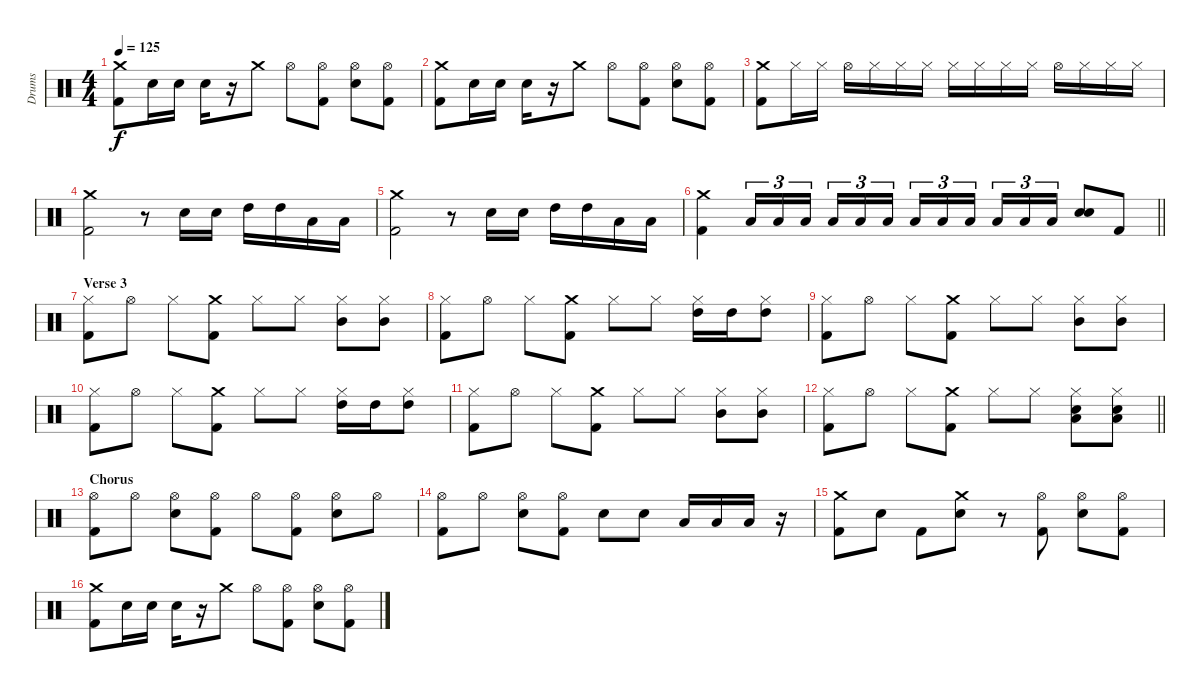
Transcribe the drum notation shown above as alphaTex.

\track ("Drums" "Drums") {instrument percussion}
\staff {score}
\articulation defaults
\ts (4 4)
\tempo 125
\clef neutral
\ks c
("Crash medium (hit)" "Kick (hit) 2").8{dy f} "Electric Snare (hit)".16 "Electric Snare (hit)".16 "Electric Snare (hit)".16 r.16 "Crash medium (hit)".8 "Hi-Hat (open)".8 ("Hi-Hat (open)" "Kick (hit) 2").8 ("Hi-Hat (open)" "Electric Snare (hit)").8 ("Hi-Hat (open)" "Kick (hit) 2").8 |
("Crash medium (hit)" "Kick (hit) 2").8 "Electric Snare (hit)".16 "Electric Snare (hit)".16 "Electric Snare (hit)".16 r.16 "Crash medium (hit)".8 "Hi-Hat (open)".8 ("Hi-Hat (open)" "Kick (hit) 2").8 ("Hi-Hat (open)" "Electric Snare (hit)").8 ("Hi-Hat (open)" "Kick (hit) 2").8 |
("Crash medium (hit)" "Kick (hit) 2").8 "Hi-Hat (closed)".16 "Hi-Hat (closed)".16 "Hi-Hat (open)".16 "Hi-Hat (closed)".16 "Hi-Hat (closed)".16 "Hi-Hat (closed)".16 "Hi-Hat (closed)".16 "Hi-Hat (closed)".16 "Hi-Hat (closed)".16 "Hi-Hat (closed)".16 "Hi-Hat (open)".16 "Hi-Hat (closed)".16 "Hi-Hat (closed)".16 "Hi-Hat (closed)".16 |
("Crash medium (hit)" "Kick (hit) 2").2 r.8 "Electric Snare (hit)".16 "Electric Snare (hit)".16 "High Tom (hit)".16 "High Tom (hit)".16 "Low Tom (hit)".16 "Low Tom (hit)".16 |
("Crash medium (hit)" "Kick (hit) 2").2 r.8 "Electric Snare (hit)".16 "Electric Snare (hit)".16 "High Tom (hit)".16 "High Tom (hit)".16 "Low Tom (hit)".16 "Low Tom (hit)".16 |
\barLineRight lightlight
("Crash medium (hit)" "Kick (hit) 2").4 "Low Tom (hit)".16{tu (3 2)} "Low Tom (hit)".16{tu (3 2)} "Low Tom (hit)".16{tu (3 2) beam splitsecondary} "Low Tom (hit)".16{tu (3 2)} "Low Tom (hit)".16{tu (3 2)} "Low Tom (hit)".16{tu (3 2)} "Low Tom (hit)".16{tu (3 2)} "Low Tom (hit)".16{tu (3 2)} "Low Tom (hit)".16{tu (3 2) beam splitsecondary} "Low Tom (hit)".16{tu (3 2)} "Low Tom (hit)".16{tu (3 2)} "Low Tom (hit)".16{tu (3 2)} ("Electric Snare (hit)" "Electric Snare (hit)").8 "Kick (hit) 2".8 |
\section ("" "Verse 3")
("Hi-Hat (closed)" "Kick (hit) 2").8 "Hi-Hat (open)".8 "Hi-Hat (closed)".8 ("Crash medium (hit)" "Kick (hit) 2").8 "Hi-Hat (closed)".8 "Hi-Hat (closed)".8 ("Hi-Hat (closed)" "Mid Tom (hit)").8 ("Hi-Hat (closed)" "Mid Tom (hit)").8 |
("Hi-Hat (closed)" "Kick (hit) 2").8 "Hi-Hat (open)".8 "Hi-Hat (closed)".8 ("Crash medium (hit)" "Kick (hit) 2").8 "Hi-Hat (closed)".8 "Hi-Hat (closed)".8 ("Hi-Hat (closed)" "High Tom (hit)").16 "High Tom (hit)".16 ("Hi-Hat (closed)" "High Tom (hit)").8 |
("Hi-Hat (closed)" "Kick (hit) 2").8 "Hi-Hat (open)".8 "Hi-Hat (closed)".8 ("Crash medium (hit)" "Kick (hit) 2").8 "Hi-Hat (closed)".8 "Hi-Hat (closed)".8 ("Hi-Hat (closed)" "Mid Tom (hit)").8 ("Hi-Hat (closed)" "Mid Tom (hit)").8 |
("Hi-Hat (closed)" "Kick (hit) 2").8 "Hi-Hat (open)".8 "Hi-Hat (closed)".8 ("Crash medium (hit)" "Kick (hit) 2").8 "Hi-Hat (closed)".8 "Hi-Hat (closed)".8 ("Hi-Hat (closed)" "High Tom (hit)").16 "High Tom (hit)".16 ("Hi-Hat (closed)" "High Tom (hit)").8 |
("Hi-Hat (closed)" "Kick (hit) 2").8 "Hi-Hat (open)".8 "Hi-Hat (closed)".8 ("Crash medium (hit)" "Kick (hit) 2").8 "Hi-Hat (closed)".8 "Hi-Hat (closed)".8 ("Hi-Hat (closed)" "Mid Tom (hit)").8 ("Hi-Hat (closed)" "Mid Tom (hit)").8 |
\barLineRight lightlight
("Hi-Hat (closed)" "Kick (hit) 2").8 "Hi-Hat (open)".8 "Hi-Hat (closed)".8 ("Crash medium (hit)" "Kick (hit) 2").8 "Hi-Hat (closed)".8 "Hi-Hat (closed)".8 ("Hi-Hat (closed)" "Electric Snare (hit)" "Low Tom (hit)").8 ("Hi-Hat (closed)" "Electric Snare (hit)" "Low Tom (hit)").8 |
\section ("" "Chorus")
("Hi-Hat (open)" "Kick (hit) 2").8 "Hi-Hat (open)".8 ("Hi-Hat (open)" "Electric Snare (hit)").8 ("Hi-Hat (open)" "Kick (hit) 2").8 "Hi-Hat (open)".8 ("Hi-Hat (open)" "Kick (hit) 2").8 ("Hi-Hat (open)" "Electric Snare (hit)").8 "Hi-Hat (open)".8 |
("Hi-Hat (open)" "Kick (hit) 2").8 "Hi-Hat (open)".8 ("Hi-Hat (open)" "Electric Snare (hit)").8 ("Hi-Hat (open)" "Kick (hit) 2").8 "Electric Snare (hit)".8 "Electric Snare (hit)".8 "Low Tom (hit)".16 "Low Tom (hit)".16 "Low Tom (hit)".16 r.16 |
("Crash medium (hit)" "Kick (hit) 2").8 "Electric Snare (hit)".8 "Kick (hit) 2".8 ("Crash medium (hit)" "Electric Snare (hit)").8 r.8 ("Hi-Hat (open)" "Kick (hit) 2").8 ("Hi-Hat (open)" "Electric Snare (hit)").8 ("Hi-Hat (open)" "Kick (hit) 2").8 |
("Crash medium (hit)" "Kick (hit) 2").8 "Electric Snare (hit)".16 "Electric Snare (hit)".16 "Electric Snare (hit)".16 r.16 "Crash medium (hit)".8 "Hi-Hat (open)".8 ("Hi-Hat (open)" "Kick (hit) 2").8 ("Hi-Hat (open)" "Electric Snare (hit)").8 ("Hi-Hat (open)" "Kick (hit) 2").8
